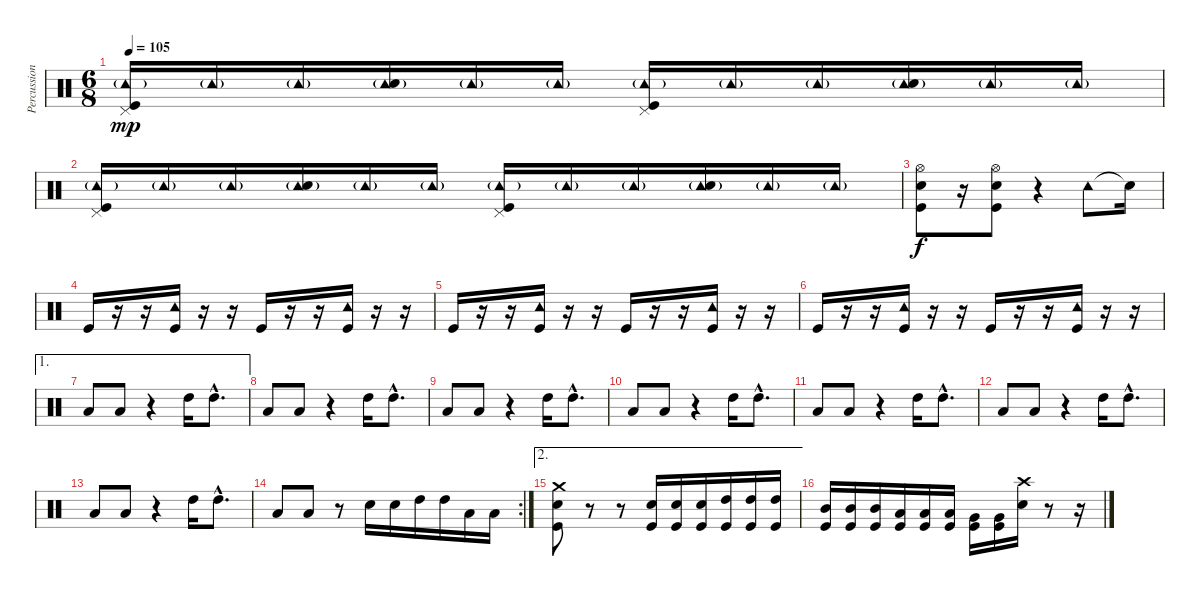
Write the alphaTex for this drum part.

\track ("Percussions" "Percussion") {instrument percussion}
\staff {score}
\articulation defaults
\ts (6 8)
\tempo 105
\clef neutral
\ks c
("Pedal Hi-Hat (hit)" "Tambourine (hit)"{g} "Kick (hit)").16{dy mp} "Tambourine (hit)"{g}.16 "Tambourine (hit)"{g}.16 ("Tambourine (hit)"{g} "Snare (hit) 2").16 "Tambourine (hit)"{g}.16 "Tambourine (hit)"{g}.16 ("Pedal Hi-Hat (hit)" "Tambourine (hit)"{g} "Kick (hit)").16 "Tambourine (hit)"{g}.16 "Tambourine (hit)"{g}.16 ("Tambourine (hit)"{g} "Snare (hit) 2").16 "Tambourine (hit)"{g}.16 "Tambourine (hit)"{g}.16 |
("Pedal Hi-Hat (hit)" "Tambourine (hit)"{g} "Kick (hit)").16 "Tambourine (hit)"{g}.16 "Tambourine (hit)"{g}.16 ("Tambourine (hit)"{g} "Snare (hit) 2").16 "Tambourine (hit)"{g}.16 "Tambourine (hit)"{g}.16 ("Pedal Hi-Hat (hit)" "Tambourine (hit)"{g} "Kick (hit)").16 "Tambourine (hit)"{g}.16 "Tambourine (hit)"{g}.16 ("Tambourine (hit)"{g} "Snare (hit) 2").16 "Tambourine (hit)"{g}.16 "Tambourine (hit)"{g}.16 |
("Hi-Hat (open)" "Snare (hit) 2" "Kick (hit)").8{dy f} r.16 ("Hi-Hat (open)" "Snare (hit) 2" "Kick (hit)").8 r.4 "Tambourine (hit)".8 "Snare (hit)"{t}.16 |
"Kick (hit)".16 r.16 r.16 ("Tambourine (hit)" "Kick (hit)").16 r.16 r.16 "Kick (hit)".16 r.16 r.16 ("Tambourine (hit)" "Kick (hit)").16 r.16 r.16 |
"Kick (hit)".16 r.16 r.16 ("Tambourine (hit)" "Kick (hit)").16 r.16 r.16 "Kick (hit)".16 r.16 r.16 ("Tambourine (hit)" "Kick (hit)").16 r.16 r.16 |
"Kick (hit)".16 r.16 r.16 ("Tambourine (hit)" "Kick (hit)").16 r.16 r.16 "Kick (hit)".16 r.16 r.16 ("Tambourine (hit)" "Kick (hit)").16 r.16 r.16 |
\ae 1 "Low Tom (hit)".8 "Low Tom (hit)".8
r.4 "High Tom (hit)".16 "High Tom (hit)"{hac}.8{d} |
"Low Tom (hit)".8 "Low Tom (hit)".8 r.4 "High Tom (hit)".16 "High Tom (hit)"{hac}.8{d} |
"Low Tom (hit)".8 "Low Tom (hit)".8 r.4 "High Tom (hit)".16 "High Tom (hit)"{hac}.8{d} |
"Low Tom (hit)".8 "Low Tom (hit)".8 r.4 "High Tom (hit)".16 "High Tom (hit)"{hac}.8{d} |
"Low Tom (hit)".8 "Low Tom (hit)".8 r.4 "High Tom (hit)".16 "High Tom (hit)"{hac}.8{d} |
"Low Tom (hit)".8 "Low Tom (hit)".8 r.4 "High Tom (hit)".16 "High Tom (hit)"{hac}.8{d} |
"Low Tom (hit)".8 "Low Tom (hit)".8 r.4 "High Tom (hit)".16 "High Tom (hit)"{hac}.8{d} |
\rc 2 "Low Tom (hit)".8 "Low Tom (hit)".8
r.8 "Snare (hit) 2".16 "Snare (hit) 2".16 "High Tom (hit)".16 "High Tom (hit)".16 "Low Tom (hit)".16 "Low Tom (hit)".16 |
\ae 2
("Crash medium (hit)" "Snare (hit) 2" "Kick (hit)").8 r.8 r.8 ("Snare (hit) 2" "Kick (hit)").16 ("Snare (hit) 2" "Kick (hit)").16 ("Snare (hit) 2" "Kick (hit)").16 ("High Tom (hit)" "Kick (hit)").16 ("High Tom (hit)" "Kick (hit)").16 ("High Tom (hit)" "Kick (hit)").16 |
("Mid Tom (hit)" "Kick (hit)").16 ("Mid Tom (hit)" "Kick (hit)").16 ("Mid Tom (hit)" "Kick (hit)").16 ("Low Tom (hit)" "Kick (hit)").16 ("Low Tom (hit)" "Kick (hit)").16 ("Low Tom (hit)" "Kick (hit)").16 ("Very Low Tom (hit)" "Kick (hit)").16 ("Very Low Tom (hit)" "Kick (hit)").16 ("Crash high (hit)" "Snare (hit) 2").16 r.8 r.16
